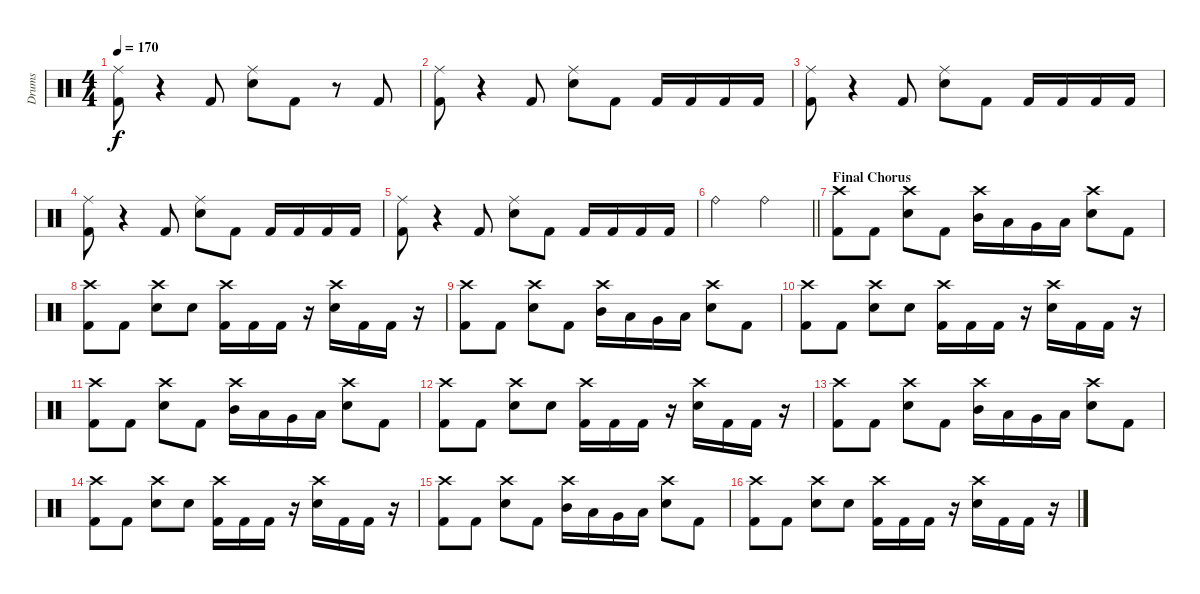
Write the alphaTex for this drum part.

\track ("Drums" "Drums") {instrument percussion}
\staff {score}
\articulation defaults
\ts (4 4)
\tempo 170
\clef neutral
\ks c
("Ride (middle)" "Kick (hit) 2").8{dy f} r.4 "Kick (hit) 2".8 ("Ride (middle)" "Electric Snare (hit)").8 "Kick (hit) 2".8 r.8 "Kick (hit) 2".8 |
("Ride (middle)" "Kick (hit) 2").8 r.4 "Kick (hit) 2".8 ("Ride (middle)" "Electric Snare (hit)").8 "Kick (hit) 2".8 "Kick (hit) 2".16 "Kick (hit) 2".16 "Kick (hit) 2".16 "Kick (hit) 2".16 |
("Ride (middle)" "Kick (hit) 2").8 r.4 "Kick (hit) 2".8 ("Ride (middle)" "Electric Snare (hit)").8 "Kick (hit) 2".8 "Kick (hit) 2".16 "Kick (hit) 2".16 "Kick (hit) 2".16 "Kick (hit) 2".16 |
("Ride (middle)" "Kick (hit) 2").8 r.4 "Kick (hit) 2".8 ("Ride (middle)" "Electric Snare (hit)").8 "Kick (hit) 2".8 "Kick (hit) 2".16 "Kick (hit) 2".16 "Kick (hit) 2".16 "Kick (hit) 2".16 |
("Ride (middle)" "Kick (hit) 2").8 r.4 "Kick (hit) 2".8 ("Ride (middle)" "Electric Snare (hit)").8 "Kick (hit) 2".8 "Kick (hit) 2".16 "Kick (hit) 2".16 "Kick (hit) 2".16 "Kick (hit) 2".16 |
\barLineRight lightlight "Ride (bell)".2 "Ride (bell)".2
|
\section ("" "Final Chorus")
("Crash high (hit)" "Kick (hit) 2").8 "Kick (hit) 2".8 ("Crash high (hit)" "Electric Snare (hit)").8 "Kick (hit) 2".8 ("Crash high (hit)" "Mid Tom (hit)").16 "Low Tom (hit)".16 "Very Low Tom (hit)".16 "Low Tom (hit)".16 ("Crash high (hit)" "Electric Snare (hit)").8 "Kick (hit) 2".8 |
("Crash high (hit)" "Kick (hit) 2").8 "Kick (hit) 2".8 ("Crash high (hit)" "Electric Snare (hit)").8 "Electric Snare (hit)".8 ("Crash high (hit)" "Kick (hit) 2").16 "Kick (hit) 2".16 "Kick (hit) 2".16 r.16 ("Crash high (hit)" "Electric Snare (hit)").16 "Kick (hit) 2".16 "Kick (hit) 2".16 r.16 |
("Crash high (hit)" "Kick (hit) 2").8 "Kick (hit) 2".8 ("Crash high (hit)" "Electric Snare (hit)").8 "Kick (hit) 2".8 ("Crash high (hit)" "Mid Tom (hit)").16 "Low Tom (hit)".16 "Very Low Tom (hit)".16 "Low Tom (hit)".16 ("Crash high (hit)" "Electric Snare (hit)").8 "Kick (hit) 2".8 |
("Crash high (hit)" "Kick (hit) 2").8 "Kick (hit) 2".8 ("Crash high (hit)" "Electric Snare (hit)").8 "Electric Snare (hit)".8 ("Crash high (hit)" "Kick (hit) 2").16 "Kick (hit) 2".16 "Kick (hit) 2".16 r.16 ("Crash high (hit)" "Electric Snare (hit)").16 "Kick (hit) 2".16 "Kick (hit) 2".16 r.16 |
("Crash high (hit)" "Kick (hit) 2").8 "Kick (hit) 2".8 ("Crash high (hit)" "Electric Snare (hit)").8 "Kick (hit) 2".8 ("Crash high (hit)" "Mid Tom (hit)").16 "Low Tom (hit)".16 "Very Low Tom (hit)".16 "Low Tom (hit)".16 ("Crash high (hit)" "Electric Snare (hit)").8 "Kick (hit) 2".8 |
("Crash high (hit)" "Kick (hit) 2").8 "Kick (hit) 2".8 ("Crash high (hit)" "Electric Snare (hit)").8 "Electric Snare (hit)".8 ("Crash high (hit)" "Kick (hit) 2").16 "Kick (hit) 2".16 "Kick (hit) 2".16 r.16 ("Crash high (hit)" "Electric Snare (hit)").16 "Kick (hit) 2".16 "Kick (hit) 2".16 r.16 |
("Crash high (hit)" "Kick (hit) 2").8 "Kick (hit) 2".8 ("Crash high (hit)" "Electric Snare (hit)").8 "Kick (hit) 2".8 ("Crash high (hit)" "Mid Tom (hit)").16 "Low Tom (hit)".16 "Very Low Tom (hit)".16 "Low Tom (hit)".16 ("Crash high (hit)" "Electric Snare (hit)").8 "Kick (hit) 2".8 |
("Crash high (hit)" "Kick (hit) 2").8 "Kick (hit) 2".8 ("Crash high (hit)" "Electric Snare (hit)").8 "Electric Snare (hit)".8 ("Crash high (hit)" "Kick (hit) 2").16 "Kick (hit) 2".16 "Kick (hit) 2".16 r.16 ("Crash high (hit)" "Electric Snare (hit)").16 "Kick (hit) 2".16 "Kick (hit) 2".16 r.16 |
("Crash high (hit)" "Kick (hit) 2").8 "Kick (hit) 2".8 ("Crash high (hit)" "Electric Snare (hit)").8 "Kick (hit) 2".8 ("Crash high (hit)" "Mid Tom (hit)").16 "Low Tom (hit)".16 "Very Low Tom (hit)".16 "Low Tom (hit)".16 ("Crash high (hit)" "Electric Snare (hit)").8 "Kick (hit) 2".8 |
("Crash high (hit)" "Kick (hit) 2").8 "Kick (hit) 2".8 ("Crash high (hit)" "Electric Snare (hit)").8 "Electric Snare (hit)".8 ("Crash high (hit)" "Kick (hit) 2").16 "Kick (hit) 2".16 "Kick (hit) 2".16 r.16 ("Crash high (hit)" "Electric Snare (hit)").16 "Kick (hit) 2".16 "Kick (hit) 2".16 r.16
